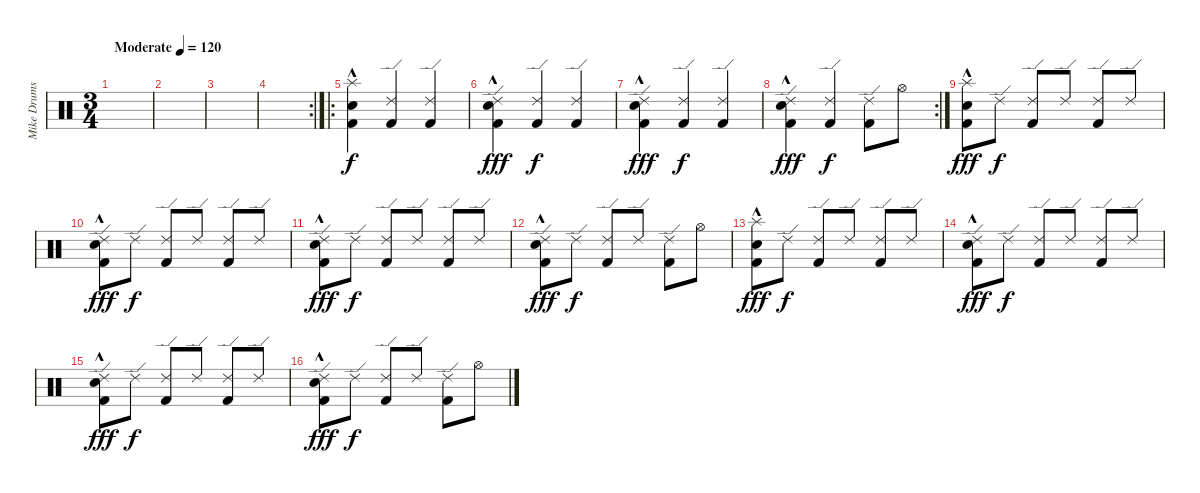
\track ("Mike Drums" "Mike Drums") {instrument percussion}
\staff {score}
\articulation defaults
\ts (3 4)
\tempo (120 "Moderate")
\clef neutral
\ks c
|
|
|
\rc 2
|
\ro
("Splash (hit)"{hac} "Snare (hit) 2"{hac} "Kick (hit) 2").4 ("Ride (edge) 2" "Kick (hit) 2").4{dy f} ("Ride (edge) 2" "Kick (hit) 2").4 |
("Ride (edge) 2" "Snare (hit) 2"{hac} "Kick (hit) 2").4{dy fff} ("Ride (edge) 2" "Kick (hit) 2").4{dy f} ("Ride (edge) 2" "Kick (hit) 2").4 |
("Ride (edge) 2" "Snare (hit) 2"{hac} "Kick (hit) 2").4{dy fff} ("Ride (edge) 2" "Kick (hit) 2").4{dy f} ("Ride (edge) 2" "Kick (hit) 2").4 |
\rc 2
("Ride (edge) 2" "Snare (hit) 2"{hac} "Kick (hit) 2").4{dy fff} ("Ride (edge) 2" "Kick (hit) 2").4{dy f} ("Ride (edge) 2" "Kick (hit) 2").8 "Hi-Hat (open)".8 |
("Splash (hit)"{hac} "Snare (hit) 2"{hac} "Kick (hit) 2").8{dy fff} "Ride (edge) 2".8{dy f} ("Ride (edge) 2" "Kick (hit) 2").8 "Ride (edge) 2".8 ("Ride (edge) 2" "Kick (hit) 2").8 "Ride (edge) 2".8 |
("Ride (edge) 2" "Snare (hit) 2"{hac} "Kick (hit) 2").8{dy fff} "Ride (edge) 2".8{dy f} ("Ride (edge) 2" "Kick (hit) 2").8 "Ride (edge) 2".8 ("Ride (edge) 2" "Kick (hit) 2").8 "Ride (edge) 2".8 |
("Ride (edge) 2" "Snare (hit) 2"{hac} "Kick (hit) 2").8{dy fff} "Ride (edge) 2".8{dy f} ("Ride (edge) 2" "Kick (hit) 2").8 "Ride (edge) 2".8 ("Ride (edge) 2" "Kick (hit) 2").8 "Ride (edge) 2".8 |
("Ride (edge) 2" "Snare (hit) 2"{hac} "Kick (hit) 2").8{dy fff} "Ride (edge) 2".8{dy f} ("Ride (edge) 2" "Kick (hit) 2").8 "Ride (edge) 2".8 ("Ride (edge) 2" "Kick (hit) 2").8 "Hi-Hat (open)".8 |
("Splash (hit)"{hac} "Snare (hit) 2"{hac} "Kick (hit) 2").8{dy fff} "Ride (edge) 2".8{dy f} ("Ride (edge) 2" "Kick (hit) 2").8 "Ride (edge) 2".8 ("Ride (edge) 2" "Kick (hit) 2").8 "Ride (edge) 2".8 |
("Ride (edge) 2" "Snare (hit) 2"{hac} "Kick (hit) 2").8{dy fff} "Ride (edge) 2".8{dy f} ("Ride (edge) 2" "Kick (hit) 2").8 "Ride (edge) 2".8 ("Ride (edge) 2" "Kick (hit) 2").8 "Ride (edge) 2".8 |
("Ride (edge) 2" "Snare (hit) 2"{hac} "Kick (hit) 2").8{dy fff} "Ride (edge) 2".8{dy f} ("Ride (edge) 2" "Kick (hit) 2").8 "Ride (edge) 2".8 ("Ride (edge) 2" "Kick (hit) 2").8 "Ride (edge) 2".8 |
("Ride (edge) 2" "Snare (hit) 2"{hac} "Kick (hit) 2").8{dy fff} "Ride (edge) 2".8{dy f} ("Ride (edge) 2" "Kick (hit) 2").8 "Ride (edge) 2".8 ("Ride (edge) 2" "Kick (hit) 2").8 "Hi-Hat (open)".8
